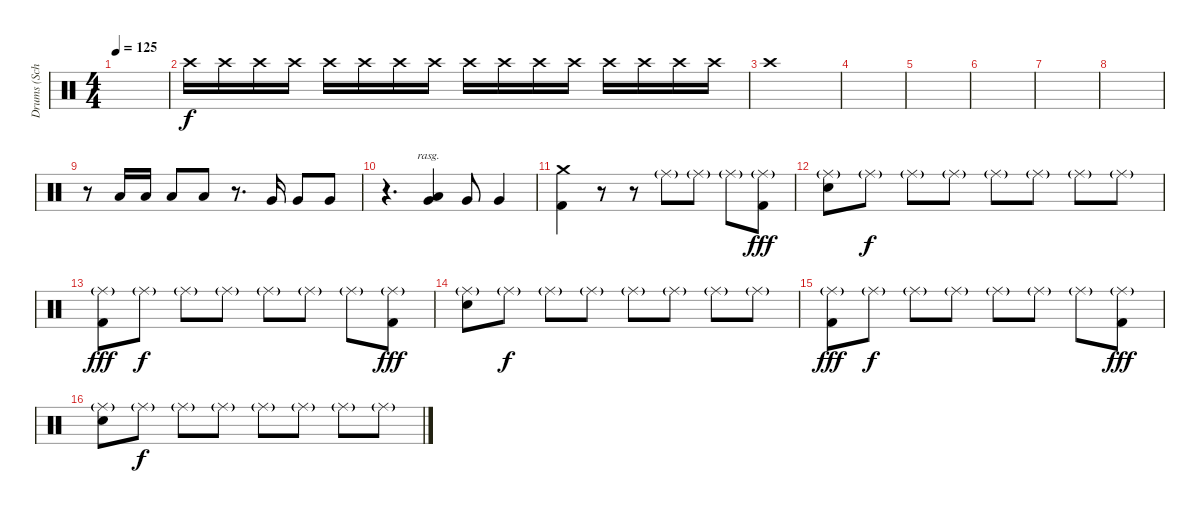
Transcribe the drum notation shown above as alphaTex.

\track ("Drums (Schill)" "Drums (Sch") {instrument percussion}
\staff {score}
\articulation defaults
\ts (4 4)
\tempo 125
\clef neutral
\ks c
|
"Crash high (hit)".16{volume 16} "Crash high (hit)".16 "Crash high (hit)".16 "Crash high (hit)".16 "Crash high (hit)".16 "Crash high (hit)".16 "Crash high (hit)".16 "Crash high (hit)".16 "Crash high (hit)".16 "Crash high (hit)".16 "Crash high (hit)".16 "Crash high (hit)".16 "Crash high (hit)".16 "Crash high (hit)".16 "Crash high (hit)".16 "Crash high (hit)".16 |
"Crash high (hit)".1 |
|
|
|
|
|
r.8 "Low Tom (hit)".16 "Low Tom (hit)".16 "Low Tom (hit)".8 "Low Tom (hit)".8 r.8{d} "Very Low Tom (hit)".16 "Very Low Tom (hit)".8 "Very Low Tom (hit)".8 |
r.4{d} ("Low Tom (hit)" "Very Low Tom (hit)").4{bu 120 rasg ii} "Very Low Tom (hit)".8 "Very Low Tom (hit)".4 |
("Crash medium (hit)" "Kick (hit) 2").4 r.8 r.8 "Ride (middle)"{g}.8{dy f} "Ride (middle)"{g}.8 "Ride (middle)"{g}.8 ("Ride (middle)"{g} "Kick (hit) 2").8{dy fff} |
("Ride (middle)"{g} "Electric Snare (hit)").8 "Ride (middle)"{g}.8{dy f} "Ride (middle)"{g}.8 "Ride (middle)"{g}.8 "Ride (middle)"{g}.8 "Ride (middle)"{g}.8 "Ride (middle)"{g}.8 "Ride (middle)"{g}.8 |
("Ride (middle)"{g} "Kick (hit) 2").8{dy fff} "Ride (middle)"{g}.8{dy f} "Ride (middle)"{g}.8 "Ride (middle)"{g}.8 "Ride (middle)"{g}.8 "Ride (middle)"{g}.8 "Ride (middle)"{g}.8 ("Ride (middle)"{g} "Kick (hit) 2").8{dy fff} |
("Ride (middle)"{g} "Electric Snare (hit)").8 "Ride (middle)"{g}.8{dy f} "Ride (middle)"{g}.8 "Ride (middle)"{g}.8 "Ride (middle)"{g}.8 "Ride (middle)"{g}.8 "Ride (middle)"{g}.8 "Ride (middle)"{g}.8 |
("Ride (middle)"{g} "Kick (hit) 2").8{dy fff} "Ride (middle)"{g}.8{dy f} "Ride (middle)"{g}.8 "Ride (middle)"{g}.8 "Ride (middle)"{g}.8 "Ride (middle)"{g}.8 "Ride (middle)"{g}.8 ("Ride (middle)"{g} "Kick (hit) 2").8{dy fff} |
("Ride (middle)"{g} "Electric Snare (hit)").8 "Ride (middle)"{g}.8{dy f} "Ride (middle)"{g}.8 "Ride (middle)"{g}.8 "Ride (middle)"{g}.8 "Ride (middle)"{g}.8 "Ride (middle)"{g}.8 "Ride (middle)"{g}.8
